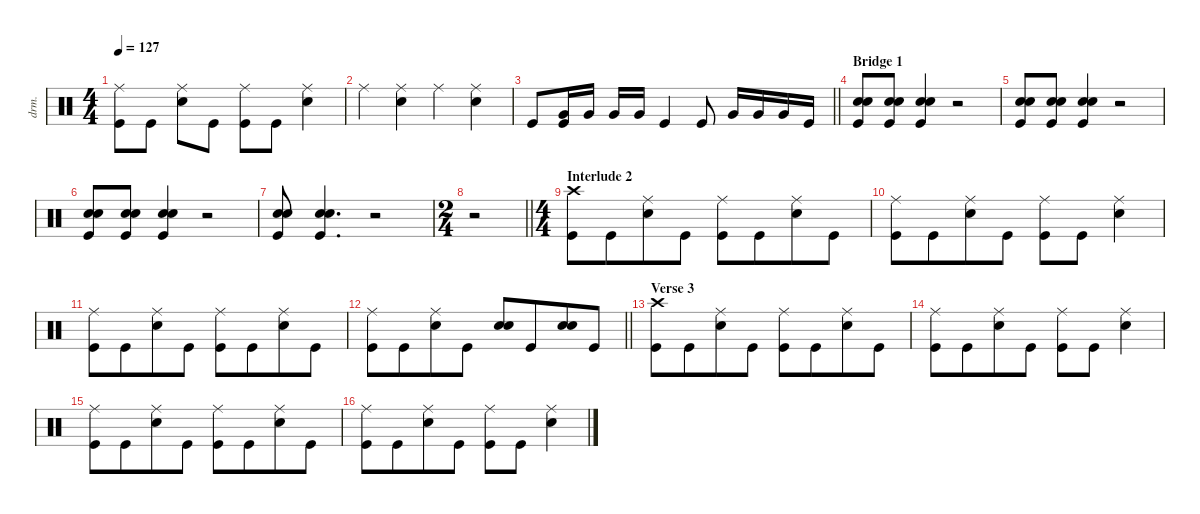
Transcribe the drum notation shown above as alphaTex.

\defaultSystemsLayout 4
\hideDynamics
\bracketExtendMode nobrackets
\otherSystemsTrackNameOrientation horizontal
\track ("Drums" "drm.") {defaultSystemsLayout 4 instrument percussion}
\staff {score}
\articulation defaults
\ts (4 4)
\tempo 127
\clef neutral
\ks c
("Ride (middle)" "Kick (hit)").8{dy f beam Down} "Kick (hit)".8{beam Down} ("Ride (middle)" "Snare (hit) 2").8{beam Down} "Kick (hit)".8{beam Down} ("Ride (middle)" "Kick (hit)").8{beam Down} "Kick (hit)".8{beam Down} ("Ride (middle)" "Snare (hit) 2").4{beam Down} |
"Ride (middle)".4{beam Down} ("Ride (middle)" "Snare (hit) 2").4{beam Down} "Ride (middle)".4{beam Down} ("Ride (middle)" "Snare (hit) 2").4{beam Down} |
\barLineRight lightlight "Kick (hit)".8{beam Up}
("Very Low Tom (hit)" "Kick (hit)").16{beam Up} "Very Low Tom (hit)".16{beam Up} "Very Low Tom (hit)".16{beam Up} "Very Low Tom (hit)".16{beam Up} "Kick (hit)".4{beam Up} "Kick (hit)".8{beam Up} "Very Low Tom (hit)".16{beam Up} "Very Low Tom (hit)".16{beam Up} "Very Low Tom (hit)".16{beam Up} "Kick (hit)".16{beam Up} |
\section ("" "Bridge 1")
("Snare (hit) 2" "Snare (hit) 2" "Kick (hit)").8{beam Up} ("Snare (hit) 2" "Snare (hit) 2" "Kick (hit)").8{beam Up} ("Snare (hit) 2" "Snare (hit) 2" "Kick (hit)").4{beam Up} r.2{beam Up} |
("Snare (hit) 2" "Snare (hit) 2" "Kick (hit)").8{beam Up} ("Snare (hit) 2" "Snare (hit) 2" "Kick (hit)").8{beam Up} ("Snare (hit) 2" "Snare (hit) 2" "Kick (hit)").4{beam Up} r.2{beam Up} |
("Snare (hit) 2" "Snare (hit) 2" "Kick (hit)").8{beam Up} ("Snare (hit) 2" "Snare (hit) 2" "Kick (hit)").8{beam Up} ("Snare (hit) 2" "Snare (hit) 2" "Kick (hit)").4{beam Up} r.2{beam Up} |
("Snare (hit) 2" "Snare (hit) 2" "Kick (hit)").8{beam Up} ("Snare (hit) 2" "Snare (hit) 2" "Kick (hit)").4{d beam Up} r.2{beam Up} |
\ts (2 4)
\beaming (8 2 2)
\barLineRight lightlight
r.2{beam Down} |
\ts (4 4)
\beaming (8 4 4)
\section ("" "Interlude 2")
("Crash high (hit)" "Kick (hit)").8{beam Down} "Kick (hit)".8{beam Down} ("Ride (middle)" "Snare (hit) 2").8{beam Down} "Kick (hit)".8{beam Down} ("Ride (middle)" "Kick (hit)").8{beam Down} "Kick (hit)".8{beam Down} ("Ride (middle)" "Snare (hit) 2").8{beam Down} "Kick (hit)".8{beam Down} |
("Ride (middle)" "Kick (hit)").8{beam Down} "Kick (hit)".8{beam Down} ("Ride (middle)" "Snare (hit) 2").8{beam Down} "Kick (hit)".8{beam Down} ("Ride (middle)" "Kick (hit)").8{beam Down} "Kick (hit)".8{beam Down} ("Ride (middle)" "Snare (hit) 2").4{beam Down} |
("Ride (middle)" "Kick (hit)").8{beam Down} "Kick (hit)".8{beam Down} ("Ride (middle)" "Snare (hit) 2").8{beam Down} "Kick (hit)".8{beam Down} ("Ride (middle)" "Kick (hit)").8{beam Down} "Kick (hit)".8{beam Down} ("Ride (middle)" "Snare (hit) 2").8{beam Down} "Kick (hit)".8{beam Down} |
\barLineRight lightlight
("Ride (middle)" "Kick (hit)").8{beam Down} "Kick (hit)".8{beam Down} ("Ride (middle)" "Snare (hit) 2").8{beam Down} "Kick (hit)".8{beam Down} ("Snare (hit) 2" "Snare (hit) 2").8{beam Up} "Kick (hit)".8{beam Up} ("Snare (hit) 2" "Snare (hit) 2").8{beam Up} "Kick (hit)".8{beam Up} |
\section ("" "Verse 3")
("Crash high (hit)" "Kick (hit)").8{beam Down} "Kick (hit)".8{beam Down} ("Ride (middle)" "Snare (hit) 2").8{beam Down} "Kick (hit)".8{beam Down} ("Ride (middle)" "Kick (hit)").8{beam Down} "Kick (hit)".8{beam Down} ("Ride (middle)" "Snare (hit) 2").8{beam Down} "Kick (hit)".8{beam Down} |
("Ride (middle)" "Kick (hit)").8{beam Down} "Kick (hit)".8{beam Down} ("Ride (middle)" "Snare (hit) 2").8{beam Down} "Kick (hit)".8{beam Down} ("Ride (middle)" "Kick (hit)").8{beam Down} "Kick (hit)".8{beam Down} ("Ride (middle)" "Snare (hit) 2").4{beam Down} |
("Ride (middle)" "Kick (hit)").8{beam Down} "Kick (hit)".8{beam Down} ("Ride (middle)" "Snare (hit) 2").8{beam Down} "Kick (hit)".8{beam Down} ("Ride (middle)" "Kick (hit)").8{beam Down} "Kick (hit)".8{beam Down} ("Ride (middle)" "Snare (hit) 2").8{beam Down} "Kick (hit)".8{beam Down} |
("Ride (middle)" "Kick (hit)").8{beam Down} "Kick (hit)".8{beam Down} ("Ride (middle)" "Snare (hit) 2").8{beam Down} "Kick (hit)".8{beam Down} ("Ride (middle)" "Kick (hit)").8{beam Down} "Kick (hit)".8{beam Down} ("Ride (middle)" "Snare (hit) 2").4{beam Down}
